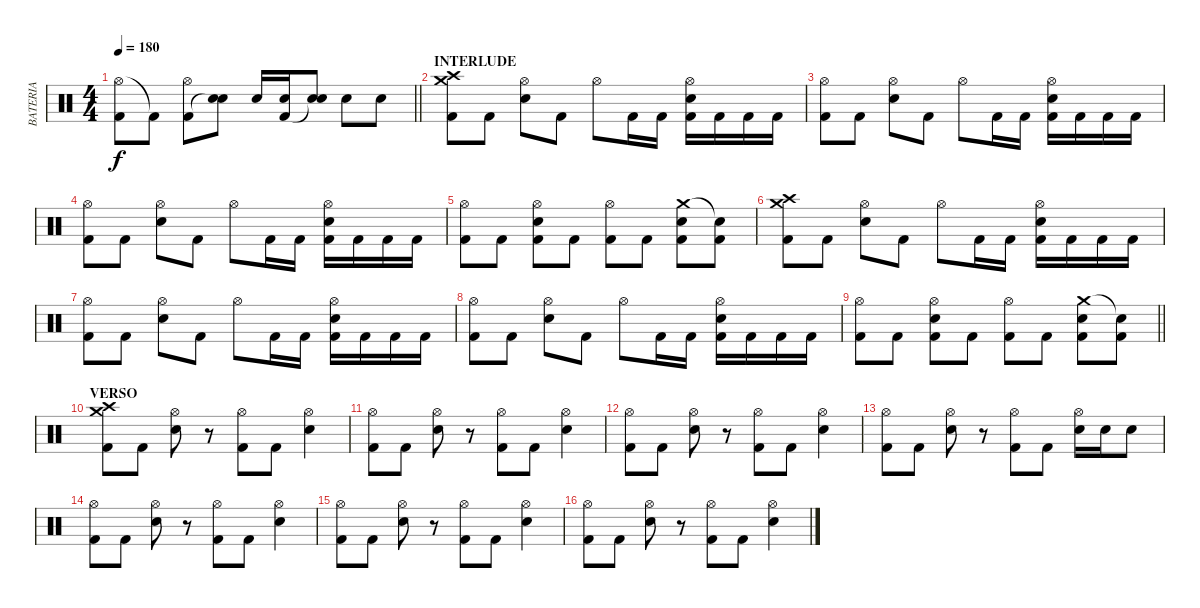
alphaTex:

\track ("BATERIA" "BATERIA") {instrument percussion}
\staff {score}
\articulation defaults
\ts (4 4)
\tempo 180
\clef neutral
\barLineRight lightlight
\ks c
("Hi-Hat (open)" "Kick (hit) 2").8{dy f} "Kick (hit) 2"{t}.8 ("Hi-Hat (open)" "Kick (hit) 2").8 ("Electric Snare (hit)" "Snare (hit)"{t}).8 "Electric Snare (hit)".16 ("Electric Snare (hit)" "Kick (hit) 2").16 ("Electric Snare (hit)" "Snare (hit)"{t}).8 "Electric Snare (hit)".8 "Electric Snare (hit)".8 |
\section ("" "INTERLUDE")
("Crash high (hit)" "Crash medium (hit)" "Kick (hit) 2").8 "Kick (hit) 2".8 ("Hi-Hat (open)" "Electric Snare (hit)").8 "Kick (hit) 2".8 "Hi-Hat (open)".8 "Kick (hit) 2".16 "Kick (hit) 2".16 ("Hi-Hat (open)" "Electric Snare (hit)" "Kick (hit) 2").16 "Kick (hit) 2".16 "Kick (hit) 2".16 "Kick (hit) 2".16 |
("Hi-Hat (open)" "Kick (hit) 2").8 "Kick (hit) 2".8 ("Hi-Hat (open)" "Electric Snare (hit)").8 "Kick (hit) 2".8 "Hi-Hat (open)".8 "Kick (hit) 2".16 "Kick (hit) 2".16 ("Hi-Hat (open)" "Electric Snare (hit)" "Kick (hit) 2").16 "Kick (hit) 2".16 "Kick (hit) 2".16 "Kick (hit) 2".16 |
("Hi-Hat (open)" "Kick (hit) 2").8 "Kick (hit) 2".8 ("Hi-Hat (open)" "Electric Snare (hit)").8 "Kick (hit) 2".8 "Hi-Hat (open)".8 "Kick (hit) 2".16 "Kick (hit) 2".16 ("Hi-Hat (open)" "Electric Snare (hit)" "Kick (hit) 2").16 "Kick (hit) 2".16 "Kick (hit) 2".16 "Kick (hit) 2".16 |
("Hi-Hat (open)" "Kick (hit) 2").8 "Kick (hit) 2".8 ("Hi-Hat (open)" "Electric Snare (hit)" "Kick (hit) 2").8 "Kick (hit) 2".8 ("Hi-Hat (open)" "Kick (hit) 2").8 "Kick (hit) 2".8 ("Crash medium (hit)" "Electric Snare (hit)" "Kick (hit) 2").8 ("Snare (hit)"{t} "Kick (hit) 2").8 |
("Crash high (hit)" "Crash medium (hit)" "Kick (hit) 2").8 "Kick (hit) 2".8 ("Hi-Hat (open)" "Electric Snare (hit)").8 "Kick (hit) 2".8 "Hi-Hat (open)".8 "Kick (hit) 2".16 "Kick (hit) 2".16 ("Hi-Hat (open)" "Electric Snare (hit)" "Kick (hit) 2").16 "Kick (hit) 2".16 "Kick (hit) 2".16 "Kick (hit) 2".16 |
("Hi-Hat (open)" "Kick (hit) 2").8 "Kick (hit) 2".8 ("Hi-Hat (open)" "Electric Snare (hit)").8 "Kick (hit) 2".8 "Hi-Hat (open)".8 "Kick (hit) 2".16 "Kick (hit) 2".16 ("Hi-Hat (open)" "Electric Snare (hit)" "Kick (hit) 2").16 "Kick (hit) 2".16 "Kick (hit) 2".16 "Kick (hit) 2".16 |
("Hi-Hat (open)" "Kick (hit) 2").8 "Kick (hit) 2".8 ("Hi-Hat (open)" "Electric Snare (hit)").8 "Kick (hit) 2".8 "Hi-Hat (open)".8 "Kick (hit) 2".16 "Kick (hit) 2".16 ("Hi-Hat (open)" "Electric Snare (hit)" "Kick (hit) 2").16 "Kick (hit) 2".16 "Kick (hit) 2".16 "Kick (hit) 2".16 |
\barLineRight lightlight
("Hi-Hat (open)" "Kick (hit) 2").8 "Kick (hit) 2".8 ("Hi-Hat (open)" "Electric Snare (hit)" "Kick (hit) 2").8 "Kick (hit) 2".8 ("Hi-Hat (open)" "Kick (hit) 2").8 "Kick (hit) 2".8 ("Crash medium (hit)" "Electric Snare (hit)" "Kick (hit) 2").8 ("Snare (hit)"{t} "Kick (hit) 2").8 |
\section ("" "VERSO")
("Crash high (hit)" "Crash medium (hit)" "Kick (hit) 2").8 "Kick (hit) 2".8 ("Hi-Hat (open)" "Electric Snare (hit)").8 r.8 ("Hi-Hat (open)" "Kick (hit) 2").8 "Kick (hit) 2".8 ("Hi-Hat (open)" "Electric Snare (hit)").4 |
("Hi-Hat (open)" "Kick (hit) 2").8 "Kick (hit) 2".8 ("Hi-Hat (open)" "Electric Snare (hit)").8 r.8 ("Hi-Hat (open)" "Kick (hit) 2").8 "Kick (hit) 2".8 ("Hi-Hat (open)" "Electric Snare (hit)").4 |
("Hi-Hat (open)" "Kick (hit) 2").8 "Kick (hit) 2".8 ("Hi-Hat (open)" "Electric Snare (hit)").8 r.8 ("Hi-Hat (open)" "Kick (hit) 2").8 "Kick (hit) 2".8 ("Hi-Hat (open)" "Electric Snare (hit)").4 |
("Hi-Hat (open)" "Kick (hit) 2").8 "Kick (hit) 2".8 ("Hi-Hat (open)" "Electric Snare (hit)").8 r.8 ("Hi-Hat (open)" "Kick (hit) 2").8 "Kick (hit) 2".8 ("Hi-Hat (open)" "Electric Snare (hit)").16 "Electric Snare (hit)".16 "Electric Snare (hit)".8 |
("Hi-Hat (open)" "Kick (hit) 2").8 "Kick (hit) 2".8 ("Hi-Hat (open)" "Electric Snare (hit)").8 r.8 ("Hi-Hat (open)" "Kick (hit) 2").8 "Kick (hit) 2".8 ("Hi-Hat (open)" "Electric Snare (hit)").4 |
("Hi-Hat (open)" "Kick (hit) 2").8 "Kick (hit) 2".8 ("Hi-Hat (open)" "Electric Snare (hit)").8 r.8 ("Hi-Hat (open)" "Kick (hit) 2").8 "Kick (hit) 2".8 ("Hi-Hat (open)" "Electric Snare (hit)").4 |
("Hi-Hat (open)" "Kick (hit) 2").8 "Kick (hit) 2".8 ("Hi-Hat (open)" "Electric Snare (hit)").8 r.8 ("Hi-Hat (open)" "Kick (hit) 2").8 "Kick (hit) 2".8 ("Hi-Hat (open)" "Electric Snare (hit)").4
